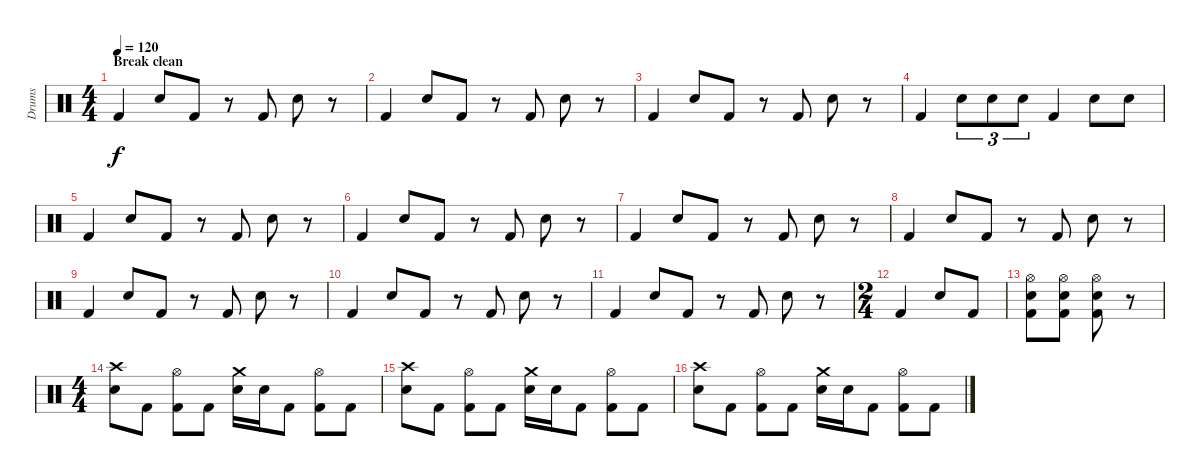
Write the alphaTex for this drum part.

\track ("Drums" "Drums") {instrument percussion}
\staff {score}
\articulation defaults
\ts (4 4)
\section ("" "Break clean")
\tempo 120
\clef neutral
\ks c "Kick (hit) 2".4{dy f} "Electric Snare (hit)".8 "Kick (hit) 2".8
r.8 "Kick (hit) 2".8 "Electric Snare (hit)".8 r.8 |
"Kick (hit) 2".4 "Electric Snare (hit)".8 "Kick (hit) 2".8 r.8 "Kick (hit) 2".8 "Electric Snare (hit)".8 r.8 |
"Kick (hit) 2".4 "Electric Snare (hit)".8 "Kick (hit) 2".8 r.8 "Kick (hit) 2".8 "Electric Snare (hit)".8 r.8 |
"Kick (hit) 2".4 "Electric Snare (hit)".8{tu (3 2)} "Electric Snare (hit)".8{tu (3 2)} "Electric Snare (hit)".8{tu (3 2)} "Kick (hit) 2".4 "Electric Snare (hit)".8 "Electric Snare (hit)".8 |
"Kick (hit) 2".4 "Electric Snare (hit)".8 "Kick (hit) 2".8 r.8 "Kick (hit) 2".8 "Electric Snare (hit)".8 r.8 |
"Kick (hit) 2".4 "Electric Snare (hit)".8 "Kick (hit) 2".8 r.8 "Kick (hit) 2".8 "Electric Snare (hit)".8 r.8 |
"Kick (hit) 2".4 "Electric Snare (hit)".8 "Kick (hit) 2".8 r.8 "Kick (hit) 2".8 "Electric Snare (hit)".8 r.8 |
"Kick (hit) 2".4 "Electric Snare (hit)".8 "Kick (hit) 2".8 r.8 "Kick (hit) 2".8 "Electric Snare (hit)".8 r.8 |
"Kick (hit) 2".4 "Electric Snare (hit)".8 "Kick (hit) 2".8 r.8 "Kick (hit) 2".8 "Electric Snare (hit)".8 r.8 |
"Kick (hit) 2".4 "Electric Snare (hit)".8 "Kick (hit) 2".8 r.8 "Kick (hit) 2".8 "Electric Snare (hit)".8 r.8 |
"Kick (hit) 2".4 "Electric Snare (hit)".8 "Kick (hit) 2".8 r.8 "Kick (hit) 2".8 "Electric Snare (hit)".8 r.8 |
\ts (2 4)
"Kick (hit) 2".4 "Electric Snare (hit)".8 "Kick (hit) 2".8 |
("Hi-Hat (open)" "Electric Snare (hit)" "Kick (hit) 2").8 ("Hi-Hat (open)" "Electric Snare (hit)" "Kick (hit) 2").8 ("Hi-Hat (open)" "Electric Snare (hit)" "Kick (hit) 2").8 r.8 |
\ts (4 4)
("Electric Snare (hit)" "Crash high (hit)").8 "Kick (hit) 2".8 ("Hi-Hat (open)" "Kick (hit) 2").8 "Kick (hit) 2".8 ("Crash medium (hit)" "Electric Snare (hit)").16 "Electric Snare (hit)".16 "Kick (hit) 2".8 ("Hi-Hat (open)" "Kick (hit) 2").8 "Kick (hit) 2".8 |
("Crash high (hit)" "Electric Snare (hit)").8 "Kick (hit) 2".8 ("Hi-Hat (open)" "Kick (hit) 2").8 "Kick (hit) 2".8 ("Crash medium (hit)" "Electric Snare (hit)").16 "Electric Snare (hit)".16 "Kick (hit) 2".8 ("Hi-Hat (open)" "Kick (hit) 2").8 "Kick (hit) 2".8 |
("Crash high (hit)" "Electric Snare (hit)").8 "Kick (hit) 2".8 ("Hi-Hat (open)" "Kick (hit) 2").8 "Kick (hit) 2".8 ("Crash medium (hit)" "Electric Snare (hit)").16 "Electric Snare (hit)".16 "Kick (hit) 2".8 ("Hi-Hat (open)" "Kick (hit) 2").8 "Kick (hit) 2".8
